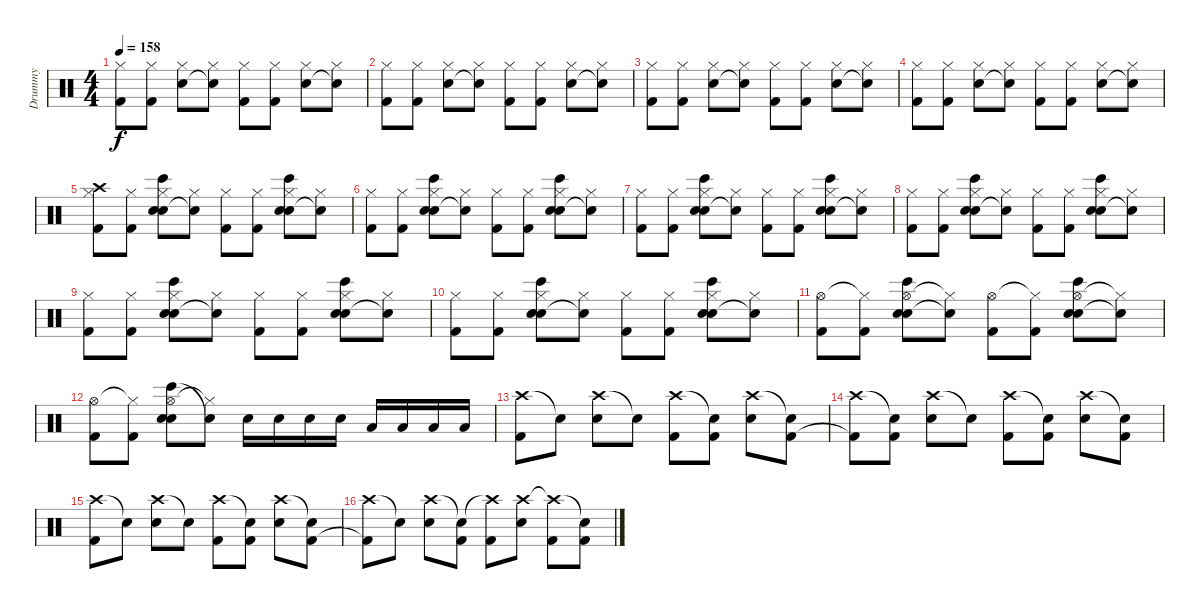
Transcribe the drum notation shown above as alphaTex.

\track ("Drummy" "Drummy") {instrument percussion bank 127}
\staff {score}
\articulation defaults
\ts (4 4)
\tempo 158
\clef neutral
\ks c
("Hi-Hat (closed)" "Kick (hit) 2").8{dy f} ("Hi-Hat (closed)" "Kick (hit) 2").8 ("Hi-Hat (closed)" "Electric Snare (hit)").8 ("Hi-Hat (closed)" "Snare (hit)"{t}).8 ("Hi-Hat (closed)" "Kick (hit) 2").8 ("Hi-Hat (closed)" "Kick (hit) 2").8 ("Hi-Hat (closed)" "Electric Snare (hit)").8 ("Hi-Hat (closed)" "Snare (hit)"{t}).8 |
("Hi-Hat (closed)" "Kick (hit) 2").8 ("Hi-Hat (closed)" "Kick (hit) 2").8 ("Hi-Hat (closed)" "Electric Snare (hit)").8 ("Hi-Hat (closed)" "Snare (hit)"{t}).8 ("Hi-Hat (closed)" "Kick (hit) 2").8 ("Hi-Hat (closed)" "Kick (hit) 2").8 ("Hi-Hat (closed)" "Electric Snare (hit)").8 ("Hi-Hat (closed)" "Snare (hit)"{t}).8 |
("Hi-Hat (closed)" "Kick (hit) 2").8 ("Hi-Hat (closed)" "Kick (hit) 2").8 ("Hi-Hat (closed)" "Electric Snare (hit)").8 ("Hi-Hat (closed)" "Snare (hit)"{t}).8 ("Hi-Hat (closed)" "Kick (hit) 2").8 ("Hi-Hat (closed)" "Kick (hit) 2").8 ("Hi-Hat (closed)" "Electric Snare (hit)").8 ("Hi-Hat (closed)" "Snare (hit)"{t}).8 |
("Hi-Hat (closed)" "Kick (hit) 2").8 ("Hi-Hat (closed)" "Kick (hit) 2").8 ("Hi-Hat (closed)" "Electric Snare (hit)").8 ("Hi-Hat (closed)" "Snare (hit)"{t}).8 ("Hi-Hat (closed)" "Kick (hit) 2").8 ("Hi-Hat (closed)" "Kick (hit) 2").8 ("Hi-Hat (closed)" "Electric Snare (hit)").8 ("Hi-Hat (closed)" "Snare (hit)"{t}).8 |
("Hi-Hat (closed)" "Crash high (hit)" "Kick (hit) 2").8 ("Hi-Hat (closed)" "Kick (hit) 2").8 ("Hi-Hat (closed)" "Hand Clap (hit)" "Bongo High (hit)" "Electric Snare (hit)").8 ("Hi-Hat (closed)" "Snare (hit)"{t}).8 ("Hi-Hat (closed)" "Kick (hit) 2").8 ("Hi-Hat (closed)" "Kick (hit) 2").8 ("Hi-Hat (closed)" "Hand Clap (hit)" "Bongo High (hit)" "Electric Snare (hit)").8 ("Hi-Hat (closed)" "Snare (hit)"{t}).8 |
("Hi-Hat (closed)" "Kick (hit) 2").8 ("Hi-Hat (closed)" "Kick (hit) 2").8 ("Hi-Hat (closed)" "Hand Clap (hit)" "Bongo High (hit)" "Electric Snare (hit)").8 ("Hi-Hat (closed)" "Snare (hit)"{t}).8 ("Hi-Hat (closed)" "Kick (hit) 2").8 ("Hi-Hat (closed)" "Kick (hit) 2").8 ("Hi-Hat (closed)" "Hand Clap (hit)" "Bongo High (hit)" "Electric Snare (hit)").8 ("Hi-Hat (closed)" "Snare (hit)"{t}).8 |
("Hi-Hat (closed)" "Kick (hit) 2").8 ("Hi-Hat (closed)" "Kick (hit) 2").8 ("Hi-Hat (closed)" "Hand Clap (hit)" "Bongo High (hit)" "Electric Snare (hit)").8 ("Hi-Hat (closed)" "Snare (hit)"{t}).8 ("Hi-Hat (closed)" "Kick (hit) 2").8 ("Hi-Hat (closed)" "Kick (hit) 2").8 ("Hi-Hat (closed)" "Hand Clap (hit)" "Bongo High (hit)" "Electric Snare (hit)").8 ("Hi-Hat (closed)" "Snare (hit)"{t}).8 |
("Hi-Hat (closed)" "Kick (hit) 2").8 ("Hi-Hat (closed)" "Kick (hit) 2").8 ("Hi-Hat (closed)" "Hand Clap (hit)" "Bongo High (hit)" "Electric Snare (hit)").8 ("Hi-Hat (closed)" "Snare (hit)"{t}).8 ("Hi-Hat (closed)" "Kick (hit) 2").8 ("Hi-Hat (closed)" "Kick (hit) 2").8 ("Hi-Hat (closed)" "Hand Clap (hit)" "Bongo High (hit)" "Electric Snare (hit)").8 ("Hi-Hat (closed)" "Snare (hit)"{t}).8 |
("Hi-Hat (closed)" "Kick (hit) 2").8 ("Hi-Hat (closed)" "Kick (hit) 2").8 ("Hi-Hat (closed)" "Hand Clap (hit)" "Bongo High (hit)" "Electric Snare (hit)").8 ("Hi-Hat (closed)" "Snare (hit)"{t}).8 ("Hi-Hat (closed)" "Kick (hit) 2").8 ("Hi-Hat (closed)" "Kick (hit) 2").8 ("Hi-Hat (closed)" "Hand Clap (hit)" "Bongo High (hit)" "Electric Snare (hit)").8 ("Hi-Hat (closed)" "Snare (hit)"{t}).8 |
("Hi-Hat (closed)" "Kick (hit) 2").8 ("Hi-Hat (closed)" "Kick (hit) 2").8 ("Hi-Hat (closed)" "Hand Clap (hit)" "Bongo High (hit)" "Electric Snare (hit)").8 ("Hi-Hat (closed)" "Snare (hit)"{t}).8 ("Hi-Hat (closed)" "Kick (hit) 2").8 ("Hi-Hat (closed)" "Kick (hit) 2").8 ("Hi-Hat (closed)" "Hand Clap (hit)" "Bongo High (hit)" "Electric Snare (hit)").8 ("Hi-Hat (closed)" "Snare (hit)"{t}).8 |
("Hi-Hat (open)" "Kick (hit) 2").8 ("Hi-Hat (closed)"{t} "Kick (hit) 2").8 ("Hi-Hat (open)" "Hand Clap (hit)" "Bongo High (hit)" "Electric Snare (hit)").8 ("Hi-Hat (closed)"{t} "Snare (hit)"{t}).8 ("Hi-Hat (open)" "Kick (hit) 2").8 ("Hi-Hat (closed)"{t} "Kick (hit) 2").8 ("Hi-Hat (open)" "Hand Clap (hit)" "Bongo High (hit)" "Electric Snare (hit)").8 ("Hi-Hat (closed)"{t} "Snare (hit)"{t}).8 |
("Hi-Hat (open)" "Kick (hit) 2").8 ("Hi-Hat (closed)"{t} "Kick (hit) 2").8 ("Hi-Hat (open)" "Bongo High (hit)" "Hand Clap (hit)" "Electric Snare (hit)").8 ("Hi-Hat (closed)"{t} "Snare (hit)"{t}).8 "Electric Snare (hit)".16 "Electric Snare (hit)".16 "Electric Snare (hit)".16 "Electric Snare (hit)".16 "Low Tom (hit)".16 "Low Tom (hit)".16 "Low Tom (hit)".16 "Low Tom (hit)".16 |
("Crash high (hit)" "Kick (hit) 2").8 "Snare (hit)"{t}.8 ("Crash high (hit)" "Electric Snare (hit)").8 "Snare (hit)"{t}.8 ("Crash high (hit)" "Kick (hit) 2").8 ("Snare (hit)"{t} "Kick (hit) 2").8 ("Crash high (hit)" "Electric Snare (hit)").8 ("Snare (hit)"{t} "Kick (hit) 2").8 |
("Crash high (hit)" "Kick (hit) 2"{t}).8 ("Snare (hit)"{t} "Kick (hit) 2").8 ("Crash high (hit)" "Electric Snare (hit)").8 "Snare (hit)"{t}.8 ("Crash high (hit)" "Kick (hit) 2").8 ("Snare (hit)"{t} "Kick (hit) 2").8 ("Crash high (hit)" "Electric Snare (hit)").8 ("Snare (hit)"{t} "Kick (hit) 2").8 |
("Crash high (hit)" "Kick (hit) 2").8 "Snare (hit)"{t}.8 ("Crash high (hit)" "Electric Snare (hit)").8 "Snare (hit)"{t}.8 ("Crash high (hit)" "Kick (hit) 2").8 ("Snare (hit)"{t} "Kick (hit) 2").8 ("Crash high (hit)" "Electric Snare (hit)").8 ("Snare (hit)"{t} "Kick (hit) 2").8 |
("Crash high (hit)" "Kick (hit) 2"{t}).8 "Snare (hit)"{t}.8 ("Crash high (hit)" "Electric Snare (hit)").8 ("Snare (hit)"{t} "Kick (hit) 2").8 ("Crash high (hit)"{t} "Kick (hit) 2").8 ("Crash high (hit)" "Electric Snare (hit)").8 ("Crash high (hit)"{t} "Kick (hit) 2").8 ("Snare (hit)"{t} "Kick (hit) 2").8
